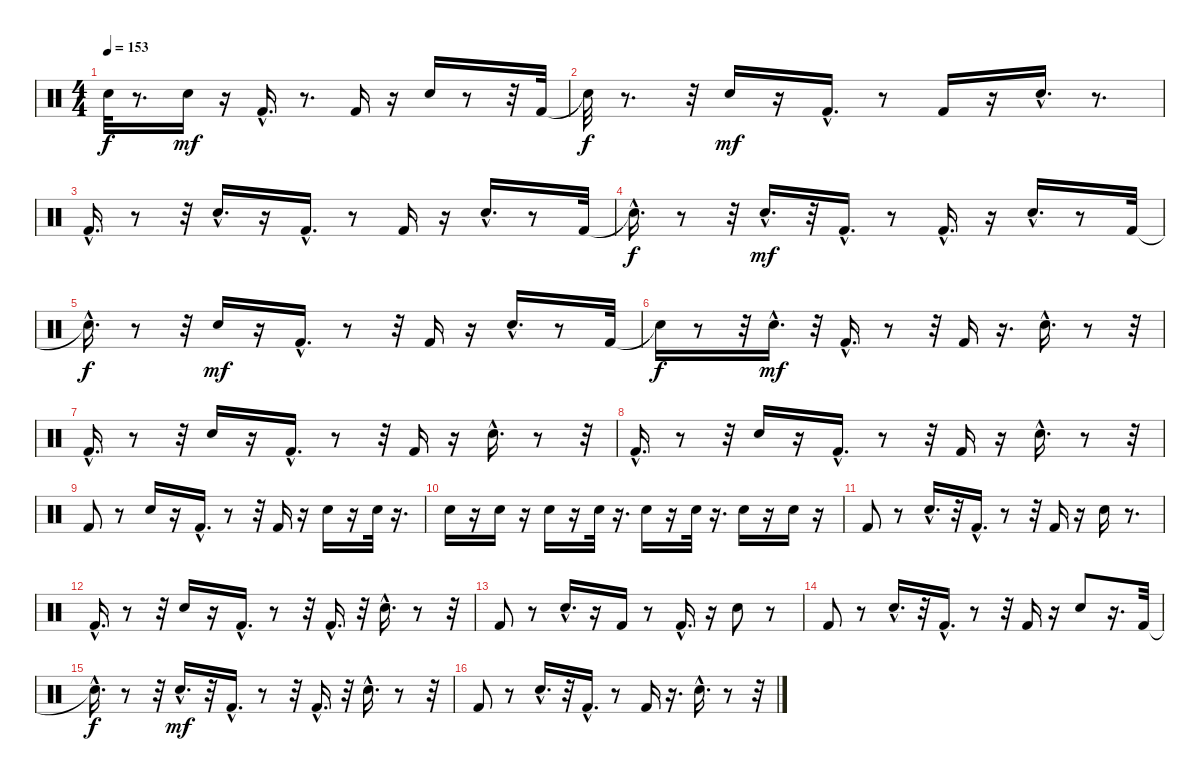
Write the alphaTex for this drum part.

\track "" {instrument percussion}
\staff {score}
\articulation defaults
\ts (4 4)
\tempo 153
\clef neutral
\ks c "Snare (hit)"{t}.32{dy f}
r.8{d} "Snare (hit) 2".16{dy mf} r.16 "Kick (hit) 2"{hac}.16{d} r.8{d} "Kick (hit) 2".16 r.16 "Snare (hit) 2".16 r.8 r.32 "Kick (hit) 2".32 |
"Snare (hit)"{t}.32{dy f} r.8{d} r.32 "Snare (hit) 2".16{dy mf} r.16 "Kick (hit) 2"{hac}.16{d} r.8 "Kick (hit) 2".16 r.16 "Snare (hit) 2"{hac}.16{d} r.8{d} |
"Kick (hit) 2"{hac}.16{d} r.8 r.32 "Snare (hit) 2"{hac}.16{d} r.16 "Kick (hit) 2"{hac}.16{d} r.8 "Kick (hit) 2".16 r.16 "Snare (hit) 2"{hac}.16{d} r.8 "Kick (hit) 2".32 |
"Snare (hit)"{hac t}.16{d dy f} r.8 r.32 "Snare (hit) 2"{hac}.16{d dy mf} r.32 "Kick (hit) 2"{hac}.16{d} r.8 "Kick (hit) 2"{hac}.16{d} r.16 "Snare (hit) 2"{hac}.16{d} r.8 "Kick (hit) 2".32 |
"Snare (hit)"{hac t}.16{d dy f} r.8 r.32 "Snare (hit) 2".16{dy mf} r.16 "Kick (hit) 2"{hac}.16{d} r.8 r.32 "Kick (hit) 2".16 r.16 "Snare (hit) 2"{hac}.16{d} r.8 "Kick (hit) 2".32 |
"Snare (hit)"{t}.16{dy f} r.8 r.32 "Snare (hit) 2"{hac}.16{d dy mf} r.32 "Kick (hit) 2"{hac}.16{d} r.8 r.32 "Kick (hit) 2".16 r.16{d} "Snare (hit) 2"{hac}.16{d} r.8 r.32 |
"Kick (hit) 2"{hac}.16{d} r.8 r.32 "Snare (hit) 2".16 r.16 "Kick (hit) 2"{hac}.16{d} r.8 r.32 "Kick (hit) 2".16 r.16 "Snare (hit) 2"{hac}.16{d} r.8 r.32 |
"Kick (hit) 2"{hac}.16{d} r.8 r.32 "Snare (hit) 2".16 r.16 "Kick (hit) 2"{hac}.16{d} r.8 r.32 "Kick (hit) 2".16 r.16 "Snare (hit) 2"{hac}.16{d} r.8 r.32 |
"Kick (hit) 2".8 r.8 "Snare (hit) 2".16 r.16 "Kick (hit) 2"{hac}.16{d} r.8 r.32 "Kick (hit) 2".16 r.16 "Snare (hit) 2".16 r.16 "Snare (hit) 2".32 r.16{d} |
"Snare (hit) 2".16 r.16 "Snare (hit) 2".16 r.16 "Snare (hit) 2".16 r.16 "Snare (hit) 2".32 r.16{d} "Snare (hit) 2".16 r.16 "Snare (hit) 2".32 r.16{d} "Snare (hit) 2".16 r.16 "Snare (hit) 2".16 r.16 |
"Kick (hit) 2".8 r.8 "Snare (hit) 2"{hac}.16{d} r.32 "Kick (hit) 2"{hac}.16{d} r.8 r.32 "Kick (hit) 2".16 r.16 "Snare (hit) 2".16 r.8{d} |
"Kick (hit) 2"{hac}.16{d} r.8 r.32 "Snare (hit) 2".16 r.16 "Kick (hit) 2"{hac}.16{d} r.8 r.32 "Kick (hit) 2"{hac}.16{d} r.32 "Snare (hit) 2"{hac}.16{d} r.8 r.32 |
"Kick (hit) 2".8 r.8 "Snare (hit) 2"{hac}.16{d} r.16 "Kick (hit) 2".16 r.8 "Kick (hit) 2"{hac}.16{d} r.16 "Snare (hit) 2".8 r.8 |
"Kick (hit) 2".8 r.8 "Snare (hit) 2"{hac}.16{d} r.32 "Kick (hit) 2"{hac}.16{d} r.8 r.32 "Kick (hit) 2".16 r.16 "Snare (hit) 2".8 r.16{d} "Kick (hit) 2".32 |
"Snare (hit)"{hac t}.16{d dy f} r.8 r.32 "Snare (hit) 2"{hac}.16{d dy mf} r.32 "Kick (hit) 2"{hac}.16{d} r.8 r.32 "Kick (hit) 2"{hac}.16{d} r.32 "Snare (hit) 2"{hac}.16{d} r.8 r.32 |
"Kick (hit) 2".8 r.8 "Snare (hit) 2"{hac}.16{d} r.32 "Kick (hit) 2"{hac}.16{d} r.8 "Kick (hit) 2".16 r.16{d} "Snare (hit) 2"{hac}.16{d} r.8 r.32
